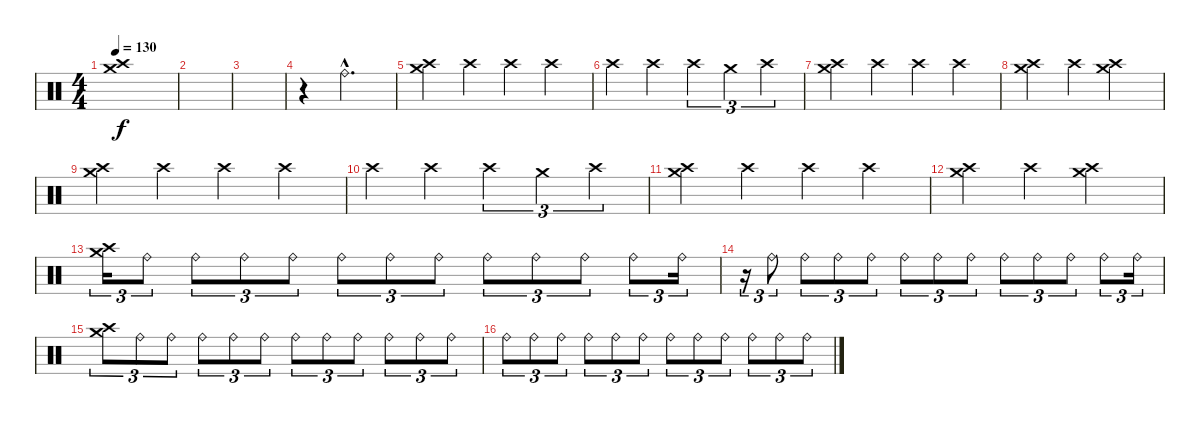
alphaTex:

\track "" {instrument percussion}
\staff {score}
\articulation defaults
\ts (4 4)
\tempo 130
\clef neutral
\ks c
("Crash medium (hit)" "Crash high (hit)").1{dy f} |
|
|
r.4 "Ride (bell)"{hac}.2{d} |
("Crash medium (hit)" "Crash high (hit)").4 "Crash high (hit)".4 "Crash high (hit)".4 "Crash high (hit)".4 |
"Crash high (hit)".4 "Crash high (hit)".4 "Crash high (hit)".4{tu (3 2)} "Crash medium (hit)".4{tu (3 2)} "Crash high (hit)".4{tu (3 2)} |
("Crash medium (hit)" "Crash high (hit)").4 "Crash high (hit)".4 "Crash high (hit)".4 "Crash high (hit)".4 |
("Crash medium (hit)" "Crash high (hit)").4 "Crash high (hit)".4 ("Crash medium (hit)" "Crash high (hit)").2 |
("Crash medium (hit)" "Crash high (hit)").4 "Crash high (hit)".4 "Crash high (hit)".4 "Crash high (hit)".4 |
"Crash high (hit)".4 "Crash high (hit)".4 "Crash high (hit)".4{tu (3 2)} "Crash medium (hit)".4{tu (3 2)} "Crash high (hit)".4{tu (3 2)} |
("Crash medium (hit)" "Crash high (hit)").4 "Crash high (hit)".4 "Crash high (hit)".4 "Crash high (hit)".4 |
("Crash medium (hit)" "Crash high (hit)").4 "Crash high (hit)".4 ("Crash medium (hit)" "Crash high (hit)").2 |
("Crash medium (hit)" "Crash high (hit)").16{tu (3 2)} "Ride (bell)".8{tu (3 2)} "Ride (bell)".8{tu (3 2)} "Ride (bell)".8{tu (3 2)} "Ride (bell)".8{tu (3 2)} "Ride (bell)".8{tu (3 2)} "Ride (bell)".8{tu (3 2)} "Ride (bell)".8{tu (3 2)} "Ride (bell)".8{tu (3 2)} "Ride (bell)".8{tu (3 2)} "Ride (bell)".8{tu (3 2)} "Ride (bell)".8{tu (3 2)} "Ride (bell)".16{tu (3 2)} |
r.16{tu (3 2)} "Ride (bell)".8{tu (3 2)} "Ride (bell)".8{tu (3 2)} "Ride (bell)".8{tu (3 2)} "Ride (bell)".8{tu (3 2)} "Ride (bell)".8{tu (3 2)} "Ride (bell)".8{tu (3 2)} "Ride (bell)".8{tu (3 2)} "Ride (bell)".8{tu (3 2)} "Ride (bell)".8{tu (3 2)} "Ride (bell)".8{tu (3 2)} "Ride (bell)".8{tu (3 2)} "Ride (bell)".16{tu (3 2)} |
("Crash medium (hit)" "Crash high (hit)").8{tu (3 2)} "Ride (bell)".8{tu (3 2)} "Ride (bell)".8{tu (3 2)} "Ride (bell)".8{tu (3 2)} "Ride (bell)".8{tu (3 2)} "Ride (bell)".8{tu (3 2)} "Ride (bell)".8{tu (3 2)} "Ride (bell)".8{tu (3 2)} "Ride (bell)".8{tu (3 2)} "Ride (bell)".8{tu (3 2)} "Ride (bell)".8{tu (3 2)} "Ride (bell)".8{tu (3 2)} |
"Ride (bell)".8{tu (3 2)} "Ride (bell)".8{tu (3 2)} "Ride (bell)".8{tu (3 2)} "Ride (bell)".8{tu (3 2)} "Ride (bell)".8{tu (3 2)} "Ride (bell)".8{tu (3 2)} "Ride (bell)".8{tu (3 2)} "Ride (bell)".8{tu (3 2)} "Ride (bell)".8{tu (3 2)} "Ride (bell)".8{tu (3 2)} "Ride (bell)".8{tu (3 2)} "Ride (bell)".8{tu (3 2)}
